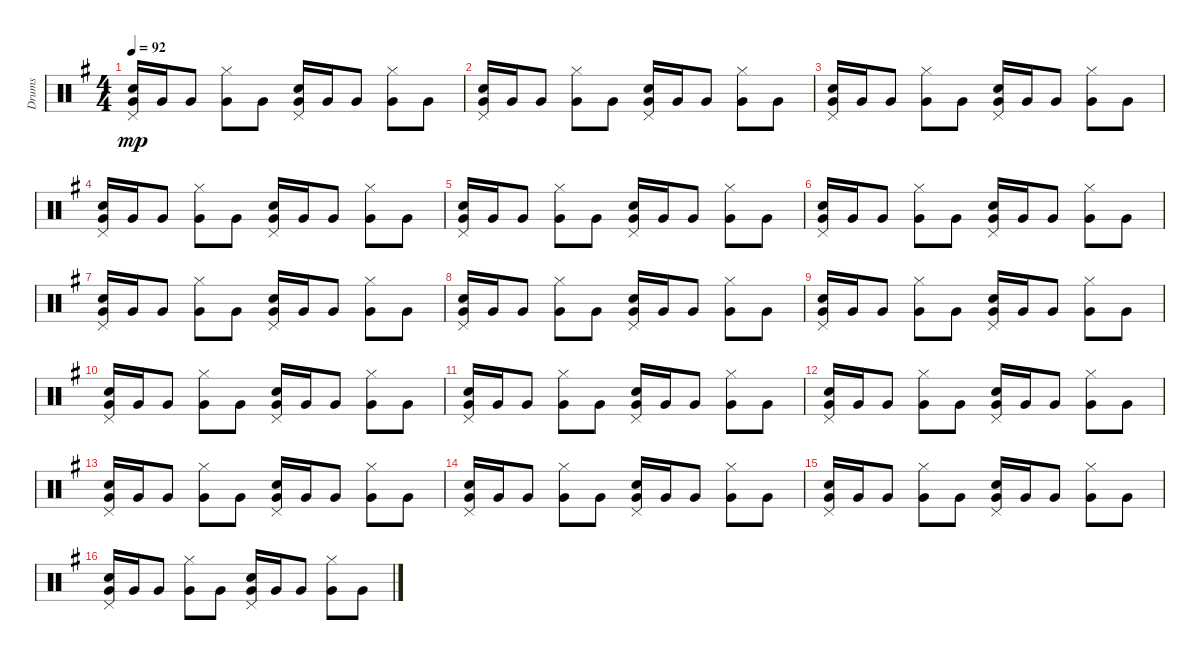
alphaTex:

\track ("Drums" "Drums") {instrument percussion}
\staff {score}
\articulation defaults
\ts (4 4)
\tempo 92
\clef neutral
\ks g
("Pedal Hi-Hat (hit)" "Very Low Tom (hit)" "Snare (hit) 2").16{dy mp} "Very Low Tom (hit)".16 "Very Low Tom (hit)".8 ("Hi-Hat (closed)" "Very Low Tom (hit)").8 "Very Low Tom (hit)".8 ("Pedal Hi-Hat (hit)" "Very Low Tom (hit)" "Snare (hit) 2").16 "Very Low Tom (hit)".16 "Very Low Tom (hit)".8 ("Hi-Hat (closed)" "Very Low Tom (hit)").8 "Very Low Tom (hit)".8 |
("Pedal Hi-Hat (hit)" "Very Low Tom (hit)" "Snare (hit) 2").16 "Very Low Tom (hit)".16 "Very Low Tom (hit)".8 ("Hi-Hat (closed)" "Very Low Tom (hit)").8 "Very Low Tom (hit)".8 ("Pedal Hi-Hat (hit)" "Very Low Tom (hit)" "Snare (hit) 2").16 "Very Low Tom (hit)".16 "Very Low Tom (hit)".8 ("Hi-Hat (closed)" "Very Low Tom (hit)").8 "Very Low Tom (hit)".8 |
("Pedal Hi-Hat (hit)" "Very Low Tom (hit)" "Snare (hit) 2").16 "Very Low Tom (hit)".16 "Very Low Tom (hit)".8 ("Hi-Hat (closed)" "Very Low Tom (hit)").8 "Very Low Tom (hit)".8 ("Pedal Hi-Hat (hit)" "Very Low Tom (hit)" "Snare (hit) 2").16 "Very Low Tom (hit)".16 "Very Low Tom (hit)".8 ("Hi-Hat (closed)" "Very Low Tom (hit)").8 "Very Low Tom (hit)".8 |
("Pedal Hi-Hat (hit)" "Very Low Tom (hit)" "Snare (hit) 2").16 "Very Low Tom (hit)".16 "Very Low Tom (hit)".8 ("Hi-Hat (closed)" "Very Low Tom (hit)").8 "Very Low Tom (hit)".8 ("Pedal Hi-Hat (hit)" "Very Low Tom (hit)" "Snare (hit) 2").16 "Very Low Tom (hit)".16 "Very Low Tom (hit)".8 ("Hi-Hat (closed)" "Very Low Tom (hit)").8 "Very Low Tom (hit)".8 |
("Pedal Hi-Hat (hit)" "Very Low Tom (hit)" "Snare (hit) 2").16 "Very Low Tom (hit)".16 "Very Low Tom (hit)".8 ("Hi-Hat (closed)" "Very Low Tom (hit)").8 "Very Low Tom (hit)".8 ("Pedal Hi-Hat (hit)" "Very Low Tom (hit)" "Snare (hit) 2").16 "Very Low Tom (hit)".16 "Very Low Tom (hit)".8 ("Hi-Hat (closed)" "Very Low Tom (hit)").8 "Very Low Tom (hit)".8 |
("Pedal Hi-Hat (hit)" "Very Low Tom (hit)" "Snare (hit) 2").16 "Very Low Tom (hit)".16 "Very Low Tom (hit)".8 ("Hi-Hat (closed)" "Very Low Tom (hit)").8 "Very Low Tom (hit)".8 ("Pedal Hi-Hat (hit)" "Very Low Tom (hit)" "Snare (hit) 2").16 "Very Low Tom (hit)".16 "Very Low Tom (hit)".8 ("Hi-Hat (closed)" "Very Low Tom (hit)").8 "Very Low Tom (hit)".8 |
("Pedal Hi-Hat (hit)" "Very Low Tom (hit)" "Snare (hit) 2").16 "Very Low Tom (hit)".16 "Very Low Tom (hit)".8 ("Hi-Hat (closed)" "Very Low Tom (hit)").8 "Very Low Tom (hit)".8 ("Pedal Hi-Hat (hit)" "Very Low Tom (hit)" "Snare (hit) 2").16 "Very Low Tom (hit)".16 "Very Low Tom (hit)".8 ("Hi-Hat (closed)" "Very Low Tom (hit)").8 "Very Low Tom (hit)".8 |
("Pedal Hi-Hat (hit)" "Very Low Tom (hit)" "Snare (hit) 2").16 "Very Low Tom (hit)".16 "Very Low Tom (hit)".8 ("Hi-Hat (closed)" "Very Low Tom (hit)").8 "Very Low Tom (hit)".8 ("Pedal Hi-Hat (hit)" "Very Low Tom (hit)" "Snare (hit) 2").16 "Very Low Tom (hit)".16 "Very Low Tom (hit)".8 ("Hi-Hat (closed)" "Very Low Tom (hit)").8 "Very Low Tom (hit)".8 |
("Pedal Hi-Hat (hit)" "Very Low Tom (hit)" "Snare (hit) 2").16 "Very Low Tom (hit)".16 "Very Low Tom (hit)".8 ("Hi-Hat (closed)" "Very Low Tom (hit)").8 "Very Low Tom (hit)".8 ("Pedal Hi-Hat (hit)" "Very Low Tom (hit)" "Snare (hit) 2").16 "Very Low Tom (hit)".16 "Very Low Tom (hit)".8 ("Hi-Hat (closed)" "Very Low Tom (hit)").8 "Very Low Tom (hit)".8 |
("Pedal Hi-Hat (hit)" "Very Low Tom (hit)" "Snare (hit) 2").16 "Very Low Tom (hit)".16 "Very Low Tom (hit)".8 ("Hi-Hat (closed)" "Very Low Tom (hit)").8 "Very Low Tom (hit)".8 ("Pedal Hi-Hat (hit)" "Very Low Tom (hit)" "Snare (hit) 2").16 "Very Low Tom (hit)".16 "Very Low Tom (hit)".8 ("Hi-Hat (closed)" "Very Low Tom (hit)").8 "Very Low Tom (hit)".8 |
("Pedal Hi-Hat (hit)" "Very Low Tom (hit)" "Snare (hit) 2").16 "Very Low Tom (hit)".16 "Very Low Tom (hit)".8 ("Hi-Hat (closed)" "Very Low Tom (hit)").8 "Very Low Tom (hit)".8 ("Pedal Hi-Hat (hit)" "Very Low Tom (hit)" "Snare (hit) 2").16 "Very Low Tom (hit)".16 "Very Low Tom (hit)".8 ("Hi-Hat (closed)" "Very Low Tom (hit)").8 "Very Low Tom (hit)".8 |
("Pedal Hi-Hat (hit)" "Very Low Tom (hit)" "Snare (hit) 2").16 "Very Low Tom (hit)".16 "Very Low Tom (hit)".8 ("Hi-Hat (closed)" "Very Low Tom (hit)").8 "Very Low Tom (hit)".8 ("Pedal Hi-Hat (hit)" "Very Low Tom (hit)" "Snare (hit) 2").16 "Very Low Tom (hit)".16 "Very Low Tom (hit)".8 ("Hi-Hat (closed)" "Very Low Tom (hit)").8 "Very Low Tom (hit)".8 |
("Pedal Hi-Hat (hit)" "Very Low Tom (hit)" "Snare (hit) 2").16 "Very Low Tom (hit)".16 "Very Low Tom (hit)".8 ("Hi-Hat (closed)" "Very Low Tom (hit)").8 "Very Low Tom (hit)".8 ("Pedal Hi-Hat (hit)" "Very Low Tom (hit)" "Snare (hit) 2").16 "Very Low Tom (hit)".16 "Very Low Tom (hit)".8 ("Hi-Hat (closed)" "Very Low Tom (hit)").8 "Very Low Tom (hit)".8 |
("Pedal Hi-Hat (hit)" "Very Low Tom (hit)" "Snare (hit) 2").16 "Very Low Tom (hit)".16 "Very Low Tom (hit)".8 ("Hi-Hat (closed)" "Very Low Tom (hit)").8 "Very Low Tom (hit)".8 ("Pedal Hi-Hat (hit)" "Very Low Tom (hit)" "Snare (hit) 2").16 "Very Low Tom (hit)".16 "Very Low Tom (hit)".8 ("Hi-Hat (closed)" "Very Low Tom (hit)").8 "Very Low Tom (hit)".8 |
("Pedal Hi-Hat (hit)" "Very Low Tom (hit)" "Snare (hit) 2").16 "Very Low Tom (hit)".16 "Very Low Tom (hit)".8 ("Hi-Hat (closed)" "Very Low Tom (hit)").8 "Very Low Tom (hit)".8 ("Pedal Hi-Hat (hit)" "Very Low Tom (hit)" "Snare (hit) 2").16 "Very Low Tom (hit)".16 "Very Low Tom (hit)".8 ("Hi-Hat (closed)" "Very Low Tom (hit)").8 "Very Low Tom (hit)".8 |
("Pedal Hi-Hat (hit)" "Very Low Tom (hit)" "Snare (hit) 2").16 "Very Low Tom (hit)".16 "Very Low Tom (hit)".8 ("Hi-Hat (closed)" "Very Low Tom (hit)").8 "Very Low Tom (hit)".8 ("Pedal Hi-Hat (hit)" "Very Low Tom (hit)" "Snare (hit) 2").16 "Very Low Tom (hit)".16 "Very Low Tom (hit)".8 ("Hi-Hat (closed)" "Very Low Tom (hit)").8 "Very Low Tom (hit)".8
